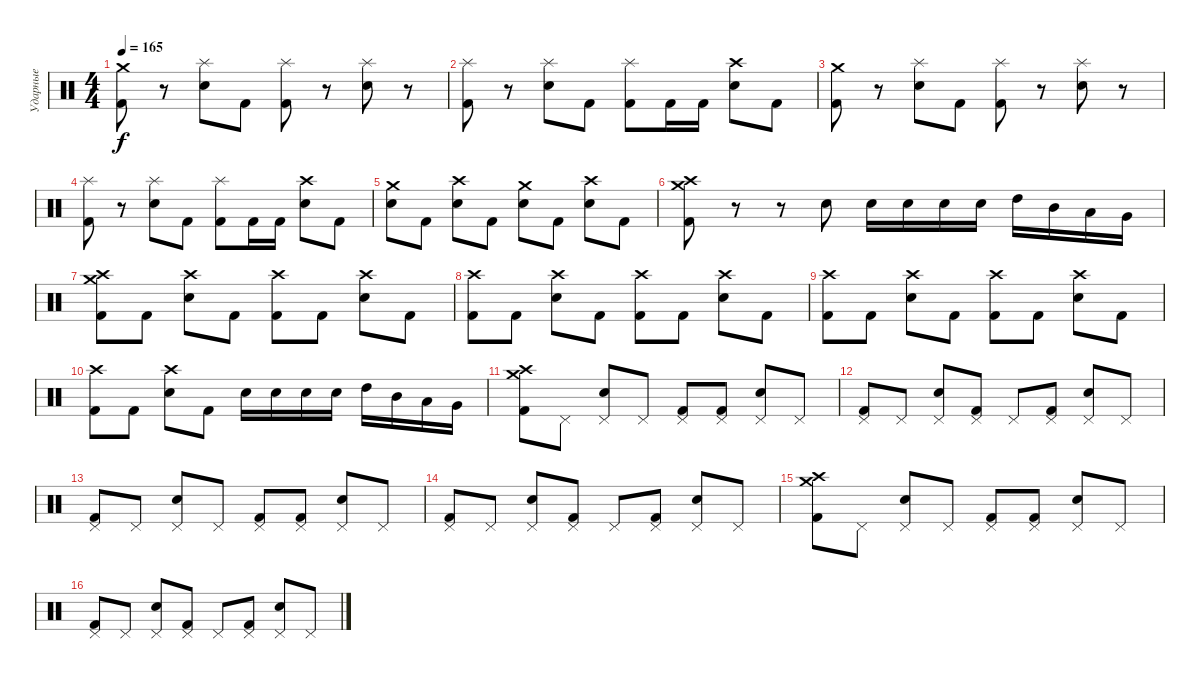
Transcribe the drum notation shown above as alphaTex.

\track ("Ударные" "Ударные") {instrument percussion}
\staff {score}
\articulation defaults
\ts (4 4)
\tempo 165
\clef neutral
\ks c
("Crash medium (hit)" "Kick (hit) 2").8{dy f} r.8 ("Splash (hit)" "Electric Snare (hit)").8 "Kick (hit) 2".8 ("Splash (hit)" "Kick (hit) 2").8 r.8 ("Splash (hit)" "Electric Snare (hit)").8 r.8 |
("Splash (hit)" "Kick (hit) 2").8 r.8 ("Splash (hit)" "Electric Snare (hit)").8 "Kick (hit) 2".8 ("Splash (hit)" "Kick (hit) 2").8 "Kick (hit) 2".16 "Kick (hit) 2".16 ("Crash high (hit)" "Electric Snare (hit)").8 "Kick (hit) 2".8 |
("Crash medium (hit)" "Kick (hit) 2").8 r.8 ("Splash (hit)" "Electric Snare (hit)").8 "Kick (hit) 2".8 ("Splash (hit)" "Kick (hit) 2").8 r.8 ("Splash (hit)" "Electric Snare (hit)").8 r.8 |
("Splash (hit)" "Kick (hit) 2").8 r.8 ("Splash (hit)" "Electric Snare (hit)").8 "Kick (hit) 2".8 ("Splash (hit)" "Kick (hit) 2").8 "Kick (hit) 2".16 "Kick (hit) 2".16 ("Crash high (hit)" "Electric Snare (hit)").8 "Kick (hit) 2".8 |
("Crash medium (hit)" "Electric Snare (hit)").8 "Kick (hit) 2".8 ("Crash high (hit)" "Electric Snare (hit)").8 "Kick (hit) 2".8 ("Crash medium (hit)" "Electric Snare (hit)").8 "Kick (hit) 2".8 ("Crash high (hit)" "Electric Snare (hit)").8 "Kick (hit) 2".8 |
("Crash medium (hit)" "Crash high (hit)" "Kick (hit) 2").8 r.8 r.8 "Electric Snare (hit)".8 "Electric Snare (hit)".16 "Electric Snare (hit)".16 "Electric Snare (hit)".16 "Electric Snare (hit)".16 "High Tom (hit)".16 "Mid Tom (hit)".16 "Low Tom (hit)".16 "Very Low Tom (hit)".16 |
("Crash medium (hit)" "Crash high (hit)" "Kick (hit) 2").8 "Kick (hit) 2".8 ("Crash high (hit)" "Electric Snare (hit)").8 "Kick (hit) 2".8 ("Crash high (hit)" "Kick (hit) 2").8 "Kick (hit) 2".8 ("Crash high (hit)" "Electric Snare (hit)").8 "Kick (hit) 2".8 |
("Crash high (hit)" "Kick (hit) 2").8 "Kick (hit) 2".8 ("Crash high (hit)" "Electric Snare (hit)").8 "Kick (hit) 2".8 ("Crash high (hit)" "Kick (hit) 2").8 "Kick (hit) 2".8 ("Crash high (hit)" "Electric Snare (hit)").8 "Kick (hit) 2".8 |
("Crash high (hit)" "Kick (hit) 2").8 "Kick (hit) 2".8 ("Crash high (hit)" "Electric Snare (hit)").8 "Kick (hit) 2".8 ("Crash high (hit)" "Kick (hit) 2").8 "Kick (hit) 2".8 ("Crash high (hit)" "Electric Snare (hit)").8 "Kick (hit) 2".8 |
("Crash high (hit)" "Kick (hit) 2").8 "Kick (hit) 2".8 ("Crash high (hit)" "Electric Snare (hit)").8 "Kick (hit) 2".8 "Electric Snare (hit)".16 "Electric Snare (hit)".16 "Electric Snare (hit)".16 "Electric Snare (hit)".16 "High Tom (hit)".16 "Mid Tom (hit)".16 "Low Tom (hit)".16 "Very Low Tom (hit)".16 |
("Crash medium (hit)" "Crash high (hit)" "Kick (hit) 2").8 "Pedal Hi-Hat (hit)".8 ("Pedal Hi-Hat (hit)" "Electric Snare (hit)").8 "Pedal Hi-Hat (hit)".8 ("Pedal Hi-Hat (hit)" "Kick (hit) 2").8 ("Pedal Hi-Hat (hit)" "Kick (hit) 2").8 ("Pedal Hi-Hat (hit)" "Electric Snare (hit)").8 "Pedal Hi-Hat (hit)".8 |
("Pedal Hi-Hat (hit)" "Kick (hit) 2").8 "Pedal Hi-Hat (hit)".8 ("Pedal Hi-Hat (hit)" "Electric Snare (hit)").8 ("Pedal Hi-Hat (hit)" "Kick (hit) 2").8 "Pedal Hi-Hat (hit)".8 ("Pedal Hi-Hat (hit)" "Kick (hit) 2").8 ("Pedal Hi-Hat (hit)" "Electric Snare (hit)").8 "Pedal Hi-Hat (hit)".8 |
("Pedal Hi-Hat (hit)" "Kick (hit) 2").8 "Pedal Hi-Hat (hit)".8 ("Pedal Hi-Hat (hit)" "Electric Snare (hit)").8 "Pedal Hi-Hat (hit)".8 ("Pedal Hi-Hat (hit)" "Kick (hit) 2").8 ("Pedal Hi-Hat (hit)" "Kick (hit) 2").8 ("Pedal Hi-Hat (hit)" "Electric Snare (hit)").8 "Pedal Hi-Hat (hit)".8 |
("Pedal Hi-Hat (hit)" "Kick (hit) 2").8 "Pedal Hi-Hat (hit)".8 ("Pedal Hi-Hat (hit)" "Electric Snare (hit)").8 ("Pedal Hi-Hat (hit)" "Kick (hit) 2").8 "Pedal Hi-Hat (hit)".8 ("Pedal Hi-Hat (hit)" "Kick (hit) 2").8 ("Pedal Hi-Hat (hit)" "Electric Snare (hit)").8 "Pedal Hi-Hat (hit)".8 |
("Crash medium (hit)" "Crash high (hit)" "Kick (hit) 2").8 "Pedal Hi-Hat (hit)".8 ("Pedal Hi-Hat (hit)" "Electric Snare (hit)").8 "Pedal Hi-Hat (hit)".8 ("Pedal Hi-Hat (hit)" "Kick (hit) 2").8 ("Pedal Hi-Hat (hit)" "Kick (hit) 2").8 ("Pedal Hi-Hat (hit)" "Electric Snare (hit)").8 "Pedal Hi-Hat (hit)".8 |
("Pedal Hi-Hat (hit)" "Kick (hit) 2").8 "Pedal Hi-Hat (hit)".8 ("Pedal Hi-Hat (hit)" "Electric Snare (hit)").8 ("Pedal Hi-Hat (hit)" "Kick (hit) 2").8 "Pedal Hi-Hat (hit)".8 ("Pedal Hi-Hat (hit)" "Kick (hit) 2").8 ("Pedal Hi-Hat (hit)" "Electric Snare (hit)").8 "Pedal Hi-Hat (hit)".8
